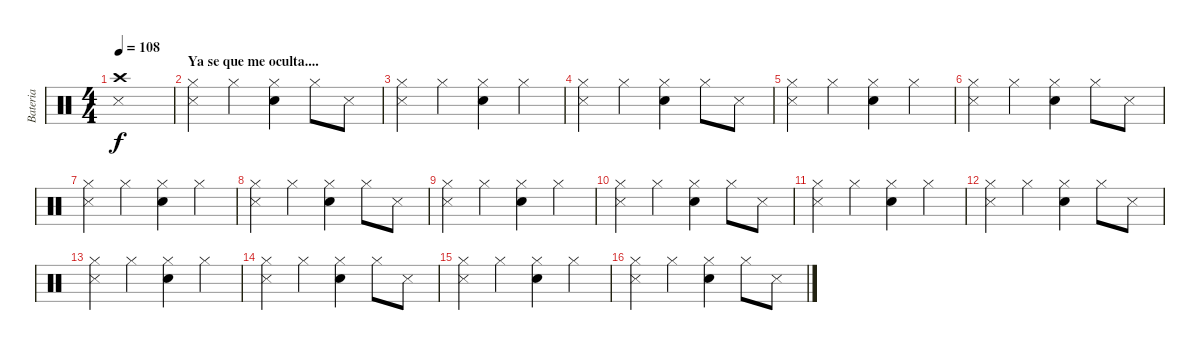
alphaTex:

\track ("Bateria" "Bateria") {instrument percussion}
\staff {score}
\articulation defaults
\ts (4 4)
\tempo 108
\clef neutral
\ks c
("Crash high (hit)" "Snare (side stick) 3").1{dy f} |
\section ("" "Ya se que me oculta....")
("Hi-Hat (closed)" "Snare (side stick) 3").4 "Hi-Hat (closed)".4 ("Snare (hit) 2" "Hi-Hat (closed)").4 "Hi-Hat (closed)".8 "Snare (side stick) 3".8 |
("Hi-Hat (closed)" "Snare (side stick) 3").4 "Hi-Hat (closed)".4 ("Snare (hit) 2" "Hi-Hat (closed)").4 "Hi-Hat (closed)".4 |
("Hi-Hat (closed)" "Snare (side stick) 3").4 "Hi-Hat (closed)".4 ("Snare (hit) 2" "Hi-Hat (closed)").4 "Hi-Hat (closed)".8 "Snare (side stick) 3".8 |
("Hi-Hat (closed)" "Snare (side stick) 3").4 "Hi-Hat (closed)".4 ("Snare (hit) 2" "Hi-Hat (closed)").4 "Hi-Hat (closed)".4 |
("Hi-Hat (closed)" "Snare (side stick) 3").4 "Hi-Hat (closed)".4 ("Snare (hit) 2" "Hi-Hat (closed)").4 "Hi-Hat (closed)".8 "Snare (side stick) 3".8 |
("Hi-Hat (closed)" "Snare (side stick) 3").4 "Hi-Hat (closed)".4 ("Snare (hit) 2" "Hi-Hat (closed)").4 "Hi-Hat (closed)".4 |
("Hi-Hat (closed)" "Snare (side stick) 3").4 "Hi-Hat (closed)".4 ("Snare (hit) 2" "Hi-Hat (closed)").4 "Hi-Hat (closed)".8 "Snare (side stick) 3".8 |
("Hi-Hat (closed)" "Snare (side stick) 3").4 "Hi-Hat (closed)".4 ("Snare (hit) 2" "Hi-Hat (closed)").4 "Hi-Hat (closed)".4 |
("Hi-Hat (closed)" "Snare (side stick) 3").4 "Hi-Hat (closed)".4 ("Snare (hit) 2" "Hi-Hat (closed)").4 "Hi-Hat (closed)".8 "Snare (side stick) 3".8 |
("Hi-Hat (closed)" "Snare (side stick) 3").4 "Hi-Hat (closed)".4 ("Snare (hit) 2" "Hi-Hat (closed)").4 "Hi-Hat (closed)".4 |
("Hi-Hat (closed)" "Snare (side stick) 3").4 "Hi-Hat (closed)".4 ("Snare (hit) 2" "Hi-Hat (closed)").4 "Hi-Hat (closed)".8 "Snare (side stick) 3".8 |
("Hi-Hat (closed)" "Snare (side stick) 3").4 "Hi-Hat (closed)".4 ("Snare (hit) 2" "Hi-Hat (closed)").4 "Hi-Hat (closed)".4 |
("Hi-Hat (closed)" "Snare (side stick) 3").4 "Hi-Hat (closed)".4 ("Snare (hit) 2" "Hi-Hat (closed)").4 "Hi-Hat (closed)".8 "Snare (side stick) 3".8 |
("Hi-Hat (closed)" "Snare (side stick) 3").4 "Hi-Hat (closed)".4 ("Snare (hit) 2" "Hi-Hat (closed)").4 "Hi-Hat (closed)".4 |
("Hi-Hat (closed)" "Snare (side stick) 3").4 "Hi-Hat (closed)".4 ("Snare (hit) 2" "Hi-Hat (closed)").4 "Hi-Hat (closed)".8 "Snare (side stick) 3".8
